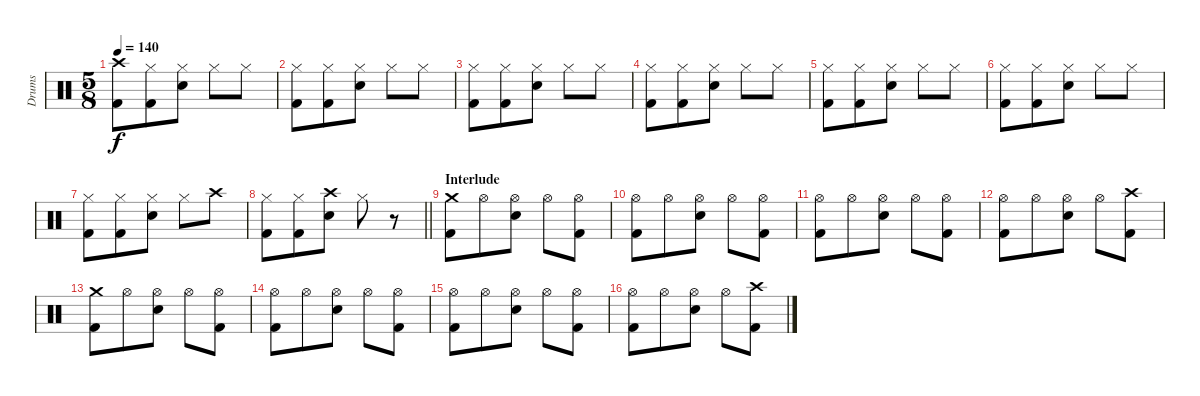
\track ("Drums" "Drums") {instrument percussion}
\staff {score}
\articulation defaults
\ts (5 8)
\tempo 140
\clef neutral
\ks c
("Crash high (hit)" "Kick (hit) 2").8{dy f} ("Hi-Hat (closed)" "Kick (hit) 2").8 ("Hi-Hat (closed)" "Electric Snare (hit)").8 "Hi-Hat (closed)".8 "Hi-Hat (closed)".8 |
("Hi-Hat (closed)" "Kick (hit) 2").8 ("Hi-Hat (closed)" "Kick (hit) 2").8 ("Hi-Hat (closed)" "Electric Snare (hit)").8 "Hi-Hat (closed)".8 "Hi-Hat (closed)".8 |
("Hi-Hat (closed)" "Kick (hit) 2").8 ("Hi-Hat (closed)" "Kick (hit) 2").8 ("Hi-Hat (closed)" "Electric Snare (hit)").8 "Hi-Hat (closed)".8 "Hi-Hat (closed)".8 |
("Hi-Hat (closed)" "Kick (hit) 2").8 ("Hi-Hat (closed)" "Kick (hit) 2").8 ("Hi-Hat (closed)" "Electric Snare (hit)").8 "Hi-Hat (closed)".8 "Hi-Hat (closed)".8 |
("Hi-Hat (closed)" "Kick (hit) 2").8 ("Hi-Hat (closed)" "Kick (hit) 2").8 ("Hi-Hat (closed)" "Electric Snare (hit)").8 "Hi-Hat (closed)".8 "Hi-Hat (closed)".8 |
("Hi-Hat (closed)" "Kick (hit) 2").8 ("Hi-Hat (closed)" "Kick (hit) 2").8 ("Hi-Hat (closed)" "Electric Snare (hit)").8 "Hi-Hat (closed)".8 "Hi-Hat (closed)".8 |
("Hi-Hat (closed)" "Kick (hit) 2").8 ("Hi-Hat (closed)" "Kick (hit) 2").8 ("Hi-Hat (closed)" "Electric Snare (hit)").8 "Hi-Hat (closed)".8 "Crash high (hit)".8 |
\barLineRight lightlight
("Hi-Hat (closed)" "Kick (hit) 2").8 ("Hi-Hat (closed)" "Kick (hit) 2").8 ("Crash high (hit)" "Electric Snare (hit)").8 "Hi-Hat (closed)".8 r.8 |
\section ("" "Interlude")
("Crash medium (hit)" "Kick (hit) 2").8 "Hi-Hat (open)".8 ("Hi-Hat (open)" "Electric Snare (hit)").8 "Hi-Hat (open)".8 ("Hi-Hat (open)" "Kick (hit) 2").8 |
("Hi-Hat (open)" "Kick (hit) 2").8 "Hi-Hat (open)".8 ("Hi-Hat (open)" "Electric Snare (hit)").8 "Hi-Hat (open)".8 ("Hi-Hat (open)" "Kick (hit) 2").8 |
("Hi-Hat (open)" "Kick (hit) 2").8 "Hi-Hat (open)".8 ("Hi-Hat (open)" "Electric Snare (hit)").8 "Hi-Hat (open)".8 ("Hi-Hat (open)" "Kick (hit) 2").8 |
("Hi-Hat (open)" "Kick (hit) 2").8 "Hi-Hat (open)".8 ("Hi-Hat (open)" "Electric Snare (hit)").8 "Hi-Hat (open)".8 ("Crash high (hit)" "Kick (hit) 2").8 |
("Crash medium (hit)" "Kick (hit) 2").8 "Hi-Hat (open)".8 ("Hi-Hat (open)" "Electric Snare (hit)").8 "Hi-Hat (open)".8 ("Hi-Hat (open)" "Kick (hit) 2").8 |
("Hi-Hat (open)" "Kick (hit) 2").8 "Hi-Hat (open)".8 ("Hi-Hat (open)" "Electric Snare (hit)").8 "Hi-Hat (open)".8 ("Hi-Hat (open)" "Kick (hit) 2").8 |
("Hi-Hat (open)" "Kick (hit) 2").8 "Hi-Hat (open)".8 ("Hi-Hat (open)" "Electric Snare (hit)").8 "Hi-Hat (open)".8 ("Hi-Hat (open)" "Kick (hit) 2").8 |
("Hi-Hat (open)" "Kick (hit) 2").8 "Hi-Hat (open)".8 ("Hi-Hat (open)" "Electric Snare (hit)").8 "Hi-Hat (open)".8 ("Crash high (hit)" "Kick (hit) 2").8
